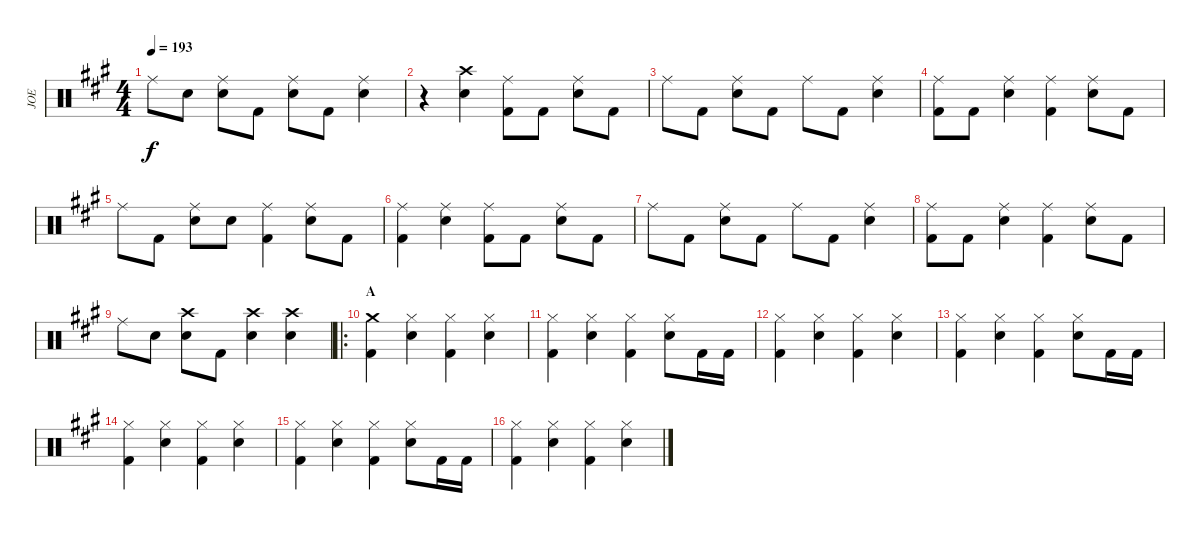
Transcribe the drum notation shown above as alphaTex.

\track ("JOE" "JOE") {instrument percussion}
\staff {score}
\articulation defaults
\ts (4 4)
\tempo 193
\clef neutral
\ks a "Ride (middle)".8{dy f} "Snare (hit) 2".8
("Ride (middle)" "Snare (hit) 2").8 "Kick (hit) 2".8 ("Ride (middle)" "Snare (hit) 2").8 "Kick (hit) 2".8 ("Ride (middle)" "Snare (hit) 2").4 |
r.4 ("Crash high (hit)" "Snare (hit) 2").4 ("Ride (middle)" "Kick (hit) 2").8 "Kick (hit) 2".8 ("Ride (middle)" "Snare (hit) 2").8 "Kick (hit) 2".8 |
"Ride (middle)".8 "Kick (hit) 2".8 ("Ride (middle)" "Snare (hit) 2").8 "Kick (hit) 2".8 "Ride (middle)".8 "Kick (hit) 2".8 ("Ride (middle)" "Snare (hit) 2").4 |
("Ride (middle)" "Kick (hit) 2").8 "Kick (hit) 2".8 ("Ride (middle)" "Snare (hit) 2").4 ("Ride (middle)" "Kick (hit) 2").4 ("Ride (middle)" "Snare (hit) 2").8 "Kick (hit) 2".8 |
"Ride (middle)".8 "Kick (hit) 2".8 ("Ride (middle)" "Snare (hit) 2").8 "Snare (hit) 2".8 ("Ride (middle)" "Kick (hit) 2").4 ("Ride (middle)" "Snare (hit) 2").8 "Kick (hit) 2".8 |
("Ride (middle)" "Kick (hit) 2").4 ("Ride (middle)" "Snare (hit) 2").4 ("Ride (middle)" "Kick (hit) 2").8 "Kick (hit) 2".8 ("Ride (middle)" "Snare (hit) 2").8 "Kick (hit) 2".8 |
"Ride (middle)".8 "Kick (hit) 2".8 ("Ride (middle)" "Snare (hit) 2").8 "Kick (hit) 2".8 "Ride (middle)".8 "Kick (hit) 2".8 ("Ride (middle)" "Snare (hit) 2").4 |
("Ride (middle)" "Kick (hit) 2").8 "Kick (hit) 2".8 ("Ride (middle)" "Snare (hit) 2").4 ("Ride (middle)" "Kick (hit) 2").4 ("Ride (middle)" "Snare (hit) 2").8 "Kick (hit) 2".8 |
"Ride (middle)".8 "Snare (hit) 2".8 ("Crash high (hit)" "Snare (hit) 2").8 "Kick (hit) 2".8 ("Crash high (hit)" "Snare (hit) 2").4 ("Crash high (hit)" "Snare (hit) 2").4 |
\ro
\section ("" "A")
("Crash medium (hit)" "Kick (hit) 2").4 ("Hi-Hat (closed)" "Snare (hit) 2").4 ("Hi-Hat (closed)" "Kick (hit) 2").4 ("Hi-Hat (closed)" "Snare (hit) 2").4 |
("Hi-Hat (closed)" "Kick (hit) 2").4 ("Hi-Hat (closed)" "Snare (hit) 2").4 ("Hi-Hat (closed)" "Kick (hit) 2").4 ("Hi-Hat (closed)" "Snare (hit) 2").8 "Kick (hit) 2".16 "Kick (hit) 2".16 |
("Hi-Hat (closed)" "Kick (hit) 2").4 ("Hi-Hat (closed)" "Snare (hit) 2").4 ("Hi-Hat (closed)" "Kick (hit) 2").4 ("Hi-Hat (closed)" "Snare (hit) 2").4 |
("Hi-Hat (closed)" "Kick (hit) 2").4 ("Hi-Hat (closed)" "Snare (hit) 2").4 ("Hi-Hat (closed)" "Kick (hit) 2").4 ("Hi-Hat (closed)" "Snare (hit) 2").8 "Kick (hit) 2".16 "Kick (hit) 2".16 |
("Hi-Hat (closed)" "Kick (hit) 2").4 ("Hi-Hat (closed)" "Snare (hit) 2").4 ("Hi-Hat (closed)" "Kick (hit) 2").4 ("Hi-Hat (closed)" "Snare (hit) 2").4 |
("Hi-Hat (closed)" "Kick (hit) 2").4 ("Hi-Hat (closed)" "Snare (hit) 2").4 ("Hi-Hat (closed)" "Kick (hit) 2").4 ("Hi-Hat (closed)" "Snare (hit) 2").8 "Kick (hit) 2".16 "Kick (hit) 2".16 |
("Hi-Hat (closed)" "Kick (hit) 2").4 ("Hi-Hat (closed)" "Snare (hit) 2").4 ("Hi-Hat (closed)" "Kick (hit) 2").4 ("Hi-Hat (closed)" "Snare (hit) 2").4
